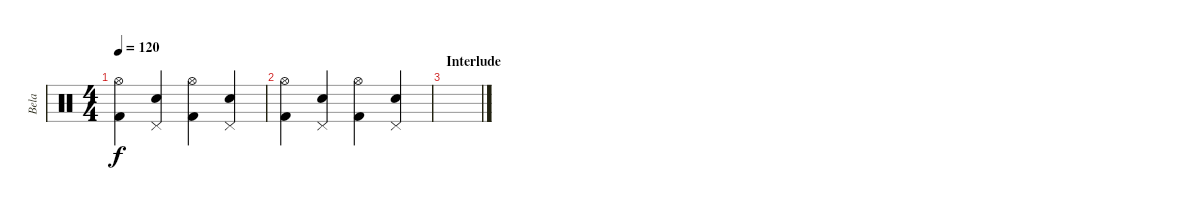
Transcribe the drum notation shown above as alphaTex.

\track ("Bela" "Bela") {instrument percussion}
\staff {score}
\articulation defaults
\ts (4 4)
\tempo 120
\clef neutral
\ks c
("Hi-Hat (open)" "Kick (hit) 2").4{dy f} ("Pedal Hi-Hat (hit)" "Electric Snare (hit)").4 ("Hi-Hat (open)" "Kick (hit) 2").4 ("Pedal Hi-Hat (hit)" "Electric Snare (hit)").4 |
("Hi-Hat (open)" "Kick (hit) 2").4 ("Pedal Hi-Hat (hit)" "Electric Snare (hit)").4 ("Hi-Hat (open)" "Kick (hit) 2").4 ("Pedal Hi-Hat (hit)" "Electric Snare (hit)").4 |
\section ("" "Interlude")
